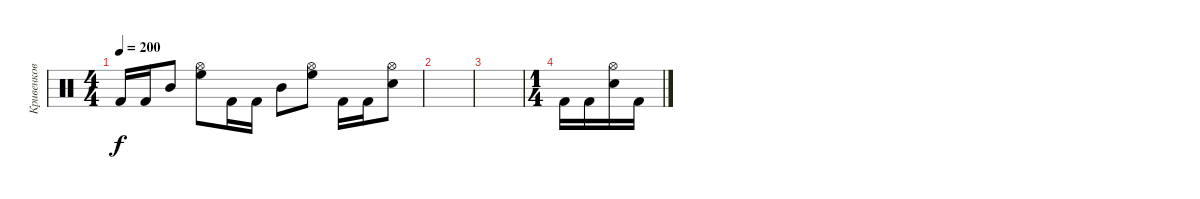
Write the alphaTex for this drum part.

\track ("Кривенков" "Кривенков") {instrument percussion}
\staff {score}
\articulation defaults
\ts (4 4)
\tempo 200
\clef neutral
\ks c "Kick (hit) 2".16{dy f} "Kick (hit) 2".16 "Mid Tom (hit)".8
("Hi-Hat (open)" "High Floor Tom (hit)").8 "Kick (hit) 2".16 "Kick (hit) 2".16 "Mid Tom (hit)".8 ("Hi-Hat (open)" "High Floor Tom (hit)").8 "Kick (hit) 2".16 "Kick (hit) 2".16 ("Hi-Hat (open)" "Electric Snare (hit)").8 |
|
|
\ts (1 4)
"Kick (hit) 2".16 "Kick (hit) 2".16 ("Hi-Hat (open)" "Electric Snare (hit)").16 "Kick (hit) 2".16
